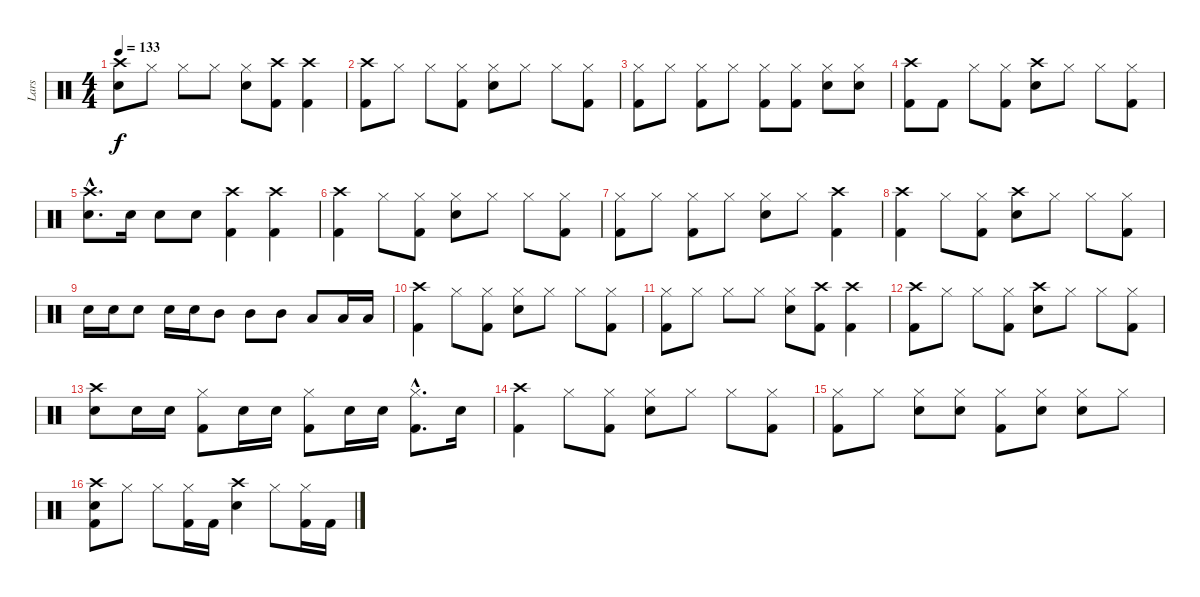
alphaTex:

\track ("Lars" "Lars") {instrument percussion}
\staff {score}
\articulation defaults
\ts (4 4)
\tempo 133
\clef neutral
\ks c
("Crash high (hit)" "Electric Snare (hit)").8{dy f} "Hi-Hat (closed)".8 "Hi-Hat (closed)".8 "Hi-Hat (closed)".8 ("Hi-Hat (closed)" "Electric Snare (hit)").8 ("Crash high (hit)" "Kick (hit) 2").8 ("Crash high (hit)" "Kick (hit) 2").4 |
("Crash high (hit)" "Kick (hit) 2").8 "Hi-Hat (closed)".8 "Hi-Hat (closed)".8 ("Hi-Hat (closed)" "Kick (hit) 2").8 ("Hi-Hat (closed)" "Electric Snare (hit)").8 "Hi-Hat (closed)".8 "Hi-Hat (closed)".8 ("Hi-Hat (closed)" "Kick (hit) 2").8 |
("Hi-Hat (closed)" "Kick (hit) 2").8 "Hi-Hat (closed)".8 ("Hi-Hat (closed)" "Kick (hit) 2").8 "Hi-Hat (closed)".8 ("Hi-Hat (closed)" "Kick (hit) 2").8 ("Hi-Hat (closed)" "Kick (hit) 2").8 ("Hi-Hat (closed)" "Electric Snare (hit)").8 ("Hi-Hat (closed)" "Electric Snare (hit)").8 |
("Crash high (hit)" "Kick (hit) 2").8 "Kick (hit) 2".8 "Hi-Hat (closed)".8 ("Hi-Hat (closed)" "Kick (hit) 2").8 ("Crash high (hit)" "Electric Snare (hit)").8 "Hi-Hat (closed)".8 "Hi-Hat (closed)".8 ("Hi-Hat (closed)" "Kick (hit) 2").8 |
("Crash high (hit)"{hac} "Electric Snare (hit)"{hac}).8{d} "Electric Snare (hit)".16 "Electric Snare (hit)".8 "Electric Snare (hit)".8 ("Crash high (hit)" "Kick (hit) 2").4 ("Crash high (hit)" "Kick (hit) 2").4 |
("Crash high (hit)" "Kick (hit) 2").4 "Hi-Hat (closed)".8 ("Hi-Hat (closed)" "Kick (hit) 2").8 ("Hi-Hat (closed)" "Electric Snare (hit)").8 "Hi-Hat (closed)".8 "Hi-Hat (closed)".8 ("Hi-Hat (closed)" "Kick (hit) 2").8 |
("Hi-Hat (closed)" "Kick (hit) 2").8 "Hi-Hat (closed)".8 ("Hi-Hat (closed)" "Kick (hit) 2").8 "Hi-Hat (closed)".8 ("Hi-Hat (closed)" "Electric Snare (hit)").8 "Hi-Hat (closed)".8 ("Crash high (hit)" "Kick (hit) 2").4 |
("Crash high (hit)" "Kick (hit) 2").4 "Hi-Hat (closed)".8 ("Hi-Hat (closed)" "Kick (hit) 2").8 ("Crash high (hit)" "Electric Snare (hit)").8 "Hi-Hat (closed)".8 "Hi-Hat (closed)".8 ("Hi-Hat (closed)" "Kick (hit) 2").8 |
"Electric Snare (hit)".16 "Electric Snare (hit)".16 "Electric Snare (hit)".8 "Electric Snare (hit)".16 "Electric Snare (hit)".16 "Mid Tom (hit)".8 "Mid Tom (hit)".8 "Mid Tom (hit)".8 "Low Tom (hit)".8 "Low Tom (hit)".16 "Low Tom (hit)".16 |
("Crash high (hit)" "Kick (hit) 2").4 "Hi-Hat (closed)".8 ("Hi-Hat (closed)" "Kick (hit) 2").8 ("Hi-Hat (closed)" "Electric Snare (hit)").8 "Hi-Hat (closed)".8 "Hi-Hat (closed)".8 ("Hi-Hat (closed)" "Kick (hit) 2").8 |
("Hi-Hat (closed)" "Kick (hit) 2").8 "Hi-Hat (closed)".8 "Hi-Hat (closed)".8 "Hi-Hat (closed)".8 ("Hi-Hat (closed)" "Electric Snare (hit)").8 ("Crash high (hit)" "Kick (hit) 2").8 ("Crash high (hit)" "Kick (hit) 2").4 |
("Crash high (hit)" "Kick (hit) 2").8 "Hi-Hat (closed)".8 "Hi-Hat (closed)".8 ("Hi-Hat (closed)" "Kick (hit) 2").8 ("Crash high (hit)" "Electric Snare (hit)").8 "Hi-Hat (closed)".8 "Hi-Hat (closed)".8 ("Hi-Hat (closed)" "Kick (hit) 2").8 |
("Crash high (hit)" "Electric Snare (hit)").8 "Electric Snare (hit)".16 "Electric Snare (hit)".16 ("Hi-Hat (closed)" "Kick (hit) 2").8 "Electric Snare (hit)".16 "Electric Snare (hit)".16 ("Hi-Hat (closed)" "Kick (hit) 2").8 "Electric Snare (hit)".16 "Electric Snare (hit)".16 ("Hi-Hat (closed)"{hac} "Kick (hit) 2"{hac}).8{d} "Electric Snare (hit)".16 |
("Crash high (hit)" "Kick (hit) 2").4 "Hi-Hat (closed)".8 ("Hi-Hat (closed)" "Kick (hit) 2").8 ("Hi-Hat (closed)" "Electric Snare (hit)").8 "Hi-Hat (closed)".8 "Hi-Hat (closed)".8 ("Hi-Hat (closed)" "Kick (hit) 2").8 |
("Hi-Hat (closed)" "Kick (hit) 2").8 "Hi-Hat (closed)".8 ("Hi-Hat (closed)" "Electric Snare (hit)").8 ("Hi-Hat (closed)" "Electric Snare (hit)").8 ("Hi-Hat (closed)" "Kick (hit) 2").8 ("Hi-Hat (closed)" "Electric Snare (hit)").8 ("Hi-Hat (closed)" "Electric Snare (hit)").8 "Hi-Hat (closed)".8 |
("Crash high (hit)" "Electric Snare (hit)" "Kick (hit) 2").8 "Hi-Hat (closed)".8 "Hi-Hat (closed)".8 ("Hi-Hat (closed)" "Kick (hit) 2").16 "Kick (hit) 2".16 ("Crash high (hit)" "Electric Snare (hit)").4 "Hi-Hat (closed)".8 ("Hi-Hat (closed)" "Kick (hit) 2").16 "Kick (hit) 2".16
